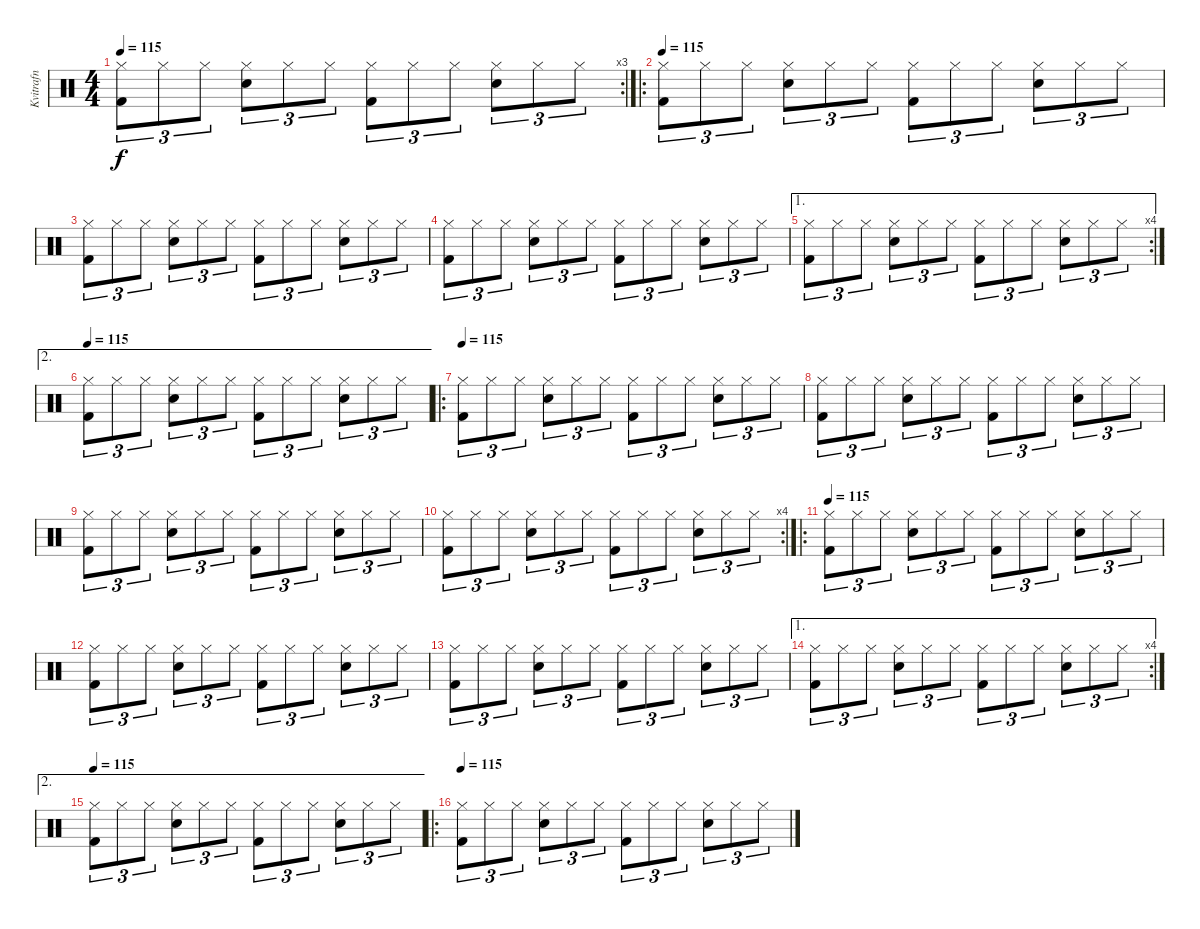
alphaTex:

\track ("Kvitrafn" "Kvitrafn") {instrument percussion}
\staff {score}
\articulation defaults
\rc 3
\ts (4 4)
\tempo 115
\clef neutral
\ks c
("Hi-Hat (closed)" "Kick (hit) 2").8{tu (3 2) dy f} "Hi-Hat (closed)".8{tu (3 2)} "Hi-Hat (closed)".8{tu (3 2)} ("Hi-Hat (closed)" "Snare (hit) 2").8{tu (3 2)} "Hi-Hat (closed)".8{tu (3 2)} "Hi-Hat (closed)".8{tu (3 2)} ("Hi-Hat (closed)" "Kick (hit) 2").8{tu (3 2)} "Hi-Hat (closed)".8{tu (3 2)} "Hi-Hat (closed)".8{tu (3 2)} ("Hi-Hat (closed)" "Snare (hit) 2").8{tu (3 2)} "Hi-Hat (closed)".8{tu (3 2)} "Hi-Hat (closed)".8{tu (3 2)} |
\ro
\tempo 115
("Hi-Hat (closed)" "Kick (hit) 2").8{tu (3 2)} "Hi-Hat (closed)".8{tu (3 2)} "Hi-Hat (closed)".8{tu (3 2)} ("Hi-Hat (closed)" "Snare (hit) 2").8{tu (3 2)} "Hi-Hat (closed)".8{tu (3 2)} "Hi-Hat (closed)".8{tu (3 2)} ("Hi-Hat (closed)" "Kick (hit) 2").8{tu (3 2)} "Hi-Hat (closed)".8{tu (3 2)} "Hi-Hat (closed)".8{tu (3 2)} ("Hi-Hat (closed)" "Snare (hit) 2").8{tu (3 2)} "Hi-Hat (closed)".8{tu (3 2)} "Hi-Hat (closed)".8{tu (3 2)} |
("Hi-Hat (closed)" "Kick (hit) 2").8{tu (3 2)} "Hi-Hat (closed)".8{tu (3 2)} "Hi-Hat (closed)".8{tu (3 2)} ("Hi-Hat (closed)" "Snare (hit) 2").8{tu (3 2)} "Hi-Hat (closed)".8{tu (3 2)} "Hi-Hat (closed)".8{tu (3 2)} ("Hi-Hat (closed)" "Kick (hit) 2").8{tu (3 2)} "Hi-Hat (closed)".8{tu (3 2)} "Hi-Hat (closed)".8{tu (3 2)} ("Hi-Hat (closed)" "Snare (hit) 2").8{tu (3 2)} "Hi-Hat (closed)".8{tu (3 2)} "Hi-Hat (closed)".8{tu (3 2)} |
("Hi-Hat (closed)" "Kick (hit) 2").8{tu (3 2)} "Hi-Hat (closed)".8{tu (3 2)} "Hi-Hat (closed)".8{tu (3 2)} ("Hi-Hat (closed)" "Snare (hit) 2").8{tu (3 2)} "Hi-Hat (closed)".8{tu (3 2)} "Hi-Hat (closed)".8{tu (3 2)} ("Hi-Hat (closed)" "Kick (hit) 2").8{tu (3 2)} "Hi-Hat (closed)".8{tu (3 2)} "Hi-Hat (closed)".8{tu (3 2)} ("Hi-Hat (closed)" "Snare (hit) 2").8{tu (3 2)} "Hi-Hat (closed)".8{tu (3 2)} "Hi-Hat (closed)".8{tu (3 2)} |
\ae 1
\rc 4
("Hi-Hat (closed)" "Kick (hit) 2").8{tu (3 2)} "Hi-Hat (closed)".8{tu (3 2)} "Hi-Hat (closed)".8{tu (3 2)} ("Hi-Hat (closed)" "Snare (hit) 2").8{tu (3 2)} "Hi-Hat (closed)".8{tu (3 2)} "Hi-Hat (closed)".8{tu (3 2)} ("Hi-Hat (closed)" "Kick (hit) 2").8{tu (3 2)} "Hi-Hat (closed)".8{tu (3 2)} "Hi-Hat (closed)".8{tu (3 2)} ("Hi-Hat (closed)" "Snare (hit) 2").8{tu (3 2)} "Hi-Hat (closed)".8{tu (3 2)} "Hi-Hat (closed)".8{tu (3 2)} |
\ae 2
\tempo 115
("Hi-Hat (closed)" "Kick (hit) 2").8{tu (3 2)} "Hi-Hat (closed)".8{tu (3 2)} "Hi-Hat (closed)".8{tu (3 2)} ("Hi-Hat (closed)" "Snare (hit) 2").8{tu (3 2)} "Hi-Hat (closed)".8{tu (3 2)} "Hi-Hat (closed)".8{tu (3 2)} ("Hi-Hat (closed)" "Kick (hit) 2").8{tu (3 2)} "Hi-Hat (closed)".8{tu (3 2)} "Hi-Hat (closed)".8{tu (3 2)} ("Hi-Hat (closed)" "Snare (hit) 2").8{tu (3 2)} "Hi-Hat (closed)".8{tu (3 2)} "Hi-Hat (closed)".8{tu (3 2)} |
\ro
\tempo 115
("Hi-Hat (closed)" "Kick (hit) 2").8{tu (3 2)} "Hi-Hat (closed)".8{tu (3 2)} "Hi-Hat (closed)".8{tu (3 2)} ("Hi-Hat (closed)" "Snare (hit) 2").8{tu (3 2)} "Hi-Hat (closed)".8{tu (3 2)} "Hi-Hat (closed)".8{tu (3 2)} ("Hi-Hat (closed)" "Kick (hit) 2").8{tu (3 2)} "Hi-Hat (closed)".8{tu (3 2)} "Hi-Hat (closed)".8{tu (3 2)} ("Hi-Hat (closed)" "Snare (hit) 2").8{tu (3 2)} "Hi-Hat (closed)".8{tu (3 2)} "Hi-Hat (closed)".8{tu (3 2)} |
("Hi-Hat (closed)" "Kick (hit) 2").8{tu (3 2)} "Hi-Hat (closed)".8{tu (3 2)} "Hi-Hat (closed)".8{tu (3 2)} ("Hi-Hat (closed)" "Snare (hit) 2").8{tu (3 2)} "Hi-Hat (closed)".8{tu (3 2)} "Hi-Hat (closed)".8{tu (3 2)} ("Hi-Hat (closed)" "Kick (hit) 2").8{tu (3 2)} "Hi-Hat (closed)".8{tu (3 2)} "Hi-Hat (closed)".8{tu (3 2)} ("Hi-Hat (closed)" "Snare (hit) 2").8{tu (3 2)} "Hi-Hat (closed)".8{tu (3 2)} "Hi-Hat (closed)".8{tu (3 2)} |
("Hi-Hat (closed)" "Kick (hit) 2").8{tu (3 2)} "Hi-Hat (closed)".8{tu (3 2)} "Hi-Hat (closed)".8{tu (3 2)} ("Hi-Hat (closed)" "Snare (hit) 2").8{tu (3 2)} "Hi-Hat (closed)".8{tu (3 2)} "Hi-Hat (closed)".8{tu (3 2)} ("Hi-Hat (closed)" "Kick (hit) 2").8{tu (3 2)} "Hi-Hat (closed)".8{tu (3 2)} "Hi-Hat (closed)".8{tu (3 2)} ("Hi-Hat (closed)" "Snare (hit) 2").8{tu (3 2)} "Hi-Hat (closed)".8{tu (3 2)} "Hi-Hat (closed)".8{tu (3 2)} |
\rc 4
("Hi-Hat (closed)" "Kick (hit) 2").8{tu (3 2)} "Hi-Hat (closed)".8{tu (3 2)} "Hi-Hat (closed)".8{tu (3 2)} ("Hi-Hat (closed)" "Snare (hit) 2").8{tu (3 2)} "Hi-Hat (closed)".8{tu (3 2)} "Hi-Hat (closed)".8{tu (3 2)} ("Hi-Hat (closed)" "Kick (hit) 2").8{tu (3 2)} "Hi-Hat (closed)".8{tu (3 2)} "Hi-Hat (closed)".8{tu (3 2)} ("Hi-Hat (closed)" "Snare (hit) 2").8{tu (3 2)} "Hi-Hat (closed)".8{tu (3 2)} "Hi-Hat (closed)".8{tu (3 2)} |
\ro
\tempo 115
("Hi-Hat (closed)" "Kick (hit) 2").8{tu (3 2)} "Hi-Hat (closed)".8{tu (3 2)} "Hi-Hat (closed)".8{tu (3 2)} ("Hi-Hat (closed)" "Snare (hit) 2").8{tu (3 2)} "Hi-Hat (closed)".8{tu (3 2)} "Hi-Hat (closed)".8{tu (3 2)} ("Hi-Hat (closed)" "Kick (hit) 2").8{tu (3 2)} "Hi-Hat (closed)".8{tu (3 2)} "Hi-Hat (closed)".8{tu (3 2)} ("Hi-Hat (closed)" "Snare (hit) 2").8{tu (3 2)} "Hi-Hat (closed)".8{tu (3 2)} "Hi-Hat (closed)".8{tu (3 2)} |
("Hi-Hat (closed)" "Kick (hit) 2").8{tu (3 2)} "Hi-Hat (closed)".8{tu (3 2)} "Hi-Hat (closed)".8{tu (3 2)} ("Hi-Hat (closed)" "Snare (hit) 2").8{tu (3 2)} "Hi-Hat (closed)".8{tu (3 2)} "Hi-Hat (closed)".8{tu (3 2)} ("Hi-Hat (closed)" "Kick (hit) 2").8{tu (3 2)} "Hi-Hat (closed)".8{tu (3 2)} "Hi-Hat (closed)".8{tu (3 2)} ("Hi-Hat (closed)" "Snare (hit) 2").8{tu (3 2)} "Hi-Hat (closed)".8{tu (3 2)} "Hi-Hat (closed)".8{tu (3 2)} |
("Hi-Hat (closed)" "Kick (hit) 2").8{tu (3 2)} "Hi-Hat (closed)".8{tu (3 2)} "Hi-Hat (closed)".8{tu (3 2)} ("Hi-Hat (closed)" "Snare (hit) 2").8{tu (3 2)} "Hi-Hat (closed)".8{tu (3 2)} "Hi-Hat (closed)".8{tu (3 2)} ("Hi-Hat (closed)" "Kick (hit) 2").8{tu (3 2)} "Hi-Hat (closed)".8{tu (3 2)} "Hi-Hat (closed)".8{tu (3 2)} ("Hi-Hat (closed)" "Snare (hit) 2").8{tu (3 2)} "Hi-Hat (closed)".8{tu (3 2)} "Hi-Hat (closed)".8{tu (3 2)} |
\ae 1
\rc 4
("Hi-Hat (closed)" "Kick (hit) 2").8{tu (3 2)} "Hi-Hat (closed)".8{tu (3 2)} "Hi-Hat (closed)".8{tu (3 2)} ("Hi-Hat (closed)" "Snare (hit) 2").8{tu (3 2)} "Hi-Hat (closed)".8{tu (3 2)} "Hi-Hat (closed)".8{tu (3 2)} ("Hi-Hat (closed)" "Kick (hit) 2").8{tu (3 2)} "Hi-Hat (closed)".8{tu (3 2)} "Hi-Hat (closed)".8{tu (3 2)} ("Hi-Hat (closed)" "Snare (hit) 2").8{tu (3 2)} "Hi-Hat (closed)".8{tu (3 2)} "Hi-Hat (closed)".8{tu (3 2)} |
\ae 2
\tempo 115
("Hi-Hat (closed)" "Kick (hit) 2").8{tu (3 2)} "Hi-Hat (closed)".8{tu (3 2)} "Hi-Hat (closed)".8{tu (3 2)} ("Hi-Hat (closed)" "Snare (hit) 2").8{tu (3 2)} "Hi-Hat (closed)".8{tu (3 2)} "Hi-Hat (closed)".8{tu (3 2)} ("Hi-Hat (closed)" "Kick (hit) 2").8{tu (3 2)} "Hi-Hat (closed)".8{tu (3 2)} "Hi-Hat (closed)".8{tu (3 2)} ("Hi-Hat (closed)" "Snare (hit) 2").8{tu (3 2)} "Hi-Hat (closed)".8{tu (3 2)} "Hi-Hat (closed)".8{tu (3 2)} |
\ro
\tempo 115
("Hi-Hat (closed)" "Kick (hit) 2").8{tu (3 2)} "Hi-Hat (closed)".8{tu (3 2)} "Hi-Hat (closed)".8{tu (3 2)} ("Hi-Hat (closed)" "Snare (hit) 2").8{tu (3 2)} "Hi-Hat (closed)".8{tu (3 2)} "Hi-Hat (closed)".8{tu (3 2)} ("Hi-Hat (closed)" "Kick (hit) 2").8{tu (3 2)} "Hi-Hat (closed)".8{tu (3 2)} "Hi-Hat (closed)".8{tu (3 2)} ("Hi-Hat (closed)" "Snare (hit) 2").8{tu (3 2)} "Hi-Hat (closed)".8{tu (3 2)} "Hi-Hat (closed)".8{tu (3 2)}
